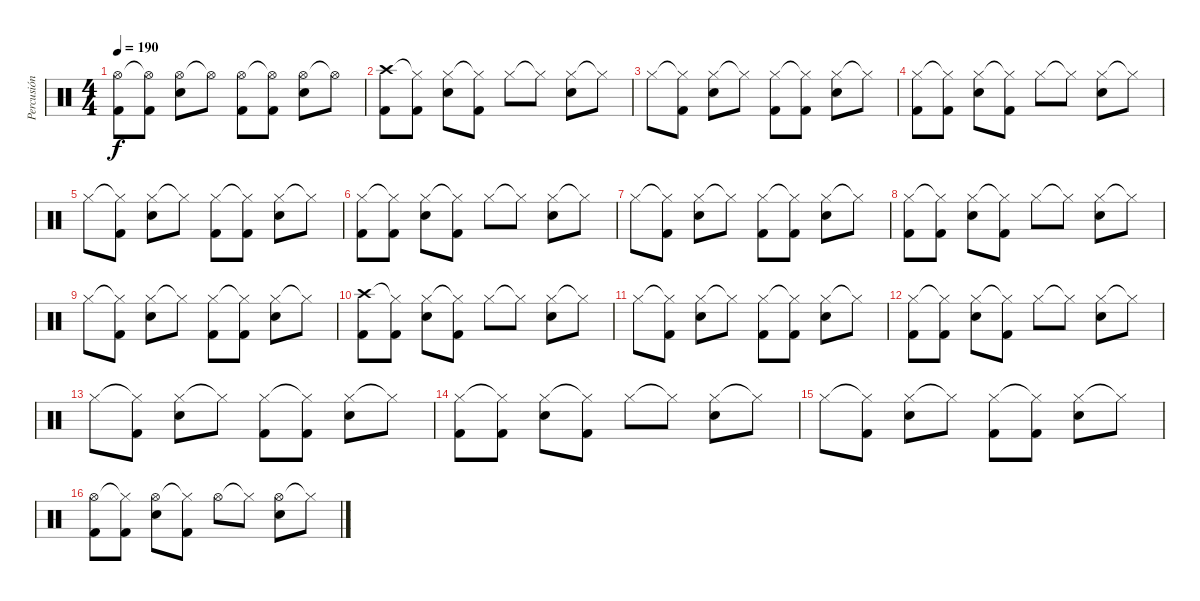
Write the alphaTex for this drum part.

\track ("Percusión" "Percusión") {instrument percussion}
\staff {score}
\articulation defaults
\ts (4 4)
\tempo 190
\clef neutral
\ks c
("Hi-Hat (open)" "Kick (hit) 2").8{dy f} ("Hi-Hat (open)"{t} "Kick (hit) 2").8 ("Hi-Hat (open)" "Snare (hit) 2").8 "Hi-Hat (open)"{t}.8 ("Hi-Hat (open)" "Kick (hit) 2").8 ("Hi-Hat (open)"{t} "Kick (hit) 2").8 ("Hi-Hat (open)" "Snare (hit) 2").8 "Hi-Hat (open)"{t}.8 |
("Crash high (hit)" "Kick (hit) 2").8 ("Hi-Hat (closed)"{t} "Kick (hit) 2").8 ("Hi-Hat (closed)" "Snare (hit) 2").8 ("Hi-Hat (closed)"{t} "Kick (hit) 2").8 "Hi-Hat (closed)".8 "Hi-Hat (closed)"{t}.8 ("Hi-Hat (closed)" "Snare (hit) 2").8 "Hi-Hat (closed)"{t}.8 |
"Hi-Hat (closed)".8 ("Hi-Hat (closed)"{t} "Kick (hit) 2").8 ("Hi-Hat (closed)" "Snare (hit) 2").8 "Hi-Hat (closed)"{t}.8 ("Hi-Hat (closed)" "Kick (hit) 2").8 ("Hi-Hat (closed)"{t} "Kick (hit) 2").8 ("Hi-Hat (closed)" "Snare (hit) 2").8 "Hi-Hat (closed)"{t}.8 |
("Hi-Hat (closed)" "Kick (hit) 2").8 ("Hi-Hat (closed)"{t} "Kick (hit) 2").8 ("Hi-Hat (closed)" "Snare (hit) 2").8 ("Hi-Hat (closed)"{t} "Kick (hit) 2").8 "Hi-Hat (closed)".8 "Hi-Hat (closed)"{t}.8 ("Hi-Hat (closed)" "Snare (hit) 2").8 "Hi-Hat (closed)"{t}.8 |
"Hi-Hat (closed)".8 ("Hi-Hat (closed)"{t} "Kick (hit) 2").8 ("Hi-Hat (closed)" "Snare (hit) 2").8 "Hi-Hat (closed)"{t}.8 ("Hi-Hat (closed)" "Kick (hit) 2").8 ("Hi-Hat (closed)"{t} "Kick (hit) 2").8 ("Hi-Hat (closed)" "Snare (hit) 2").8 "Hi-Hat (closed)"{t}.8 |
("Hi-Hat (closed)" "Kick (hit) 2").8 ("Hi-Hat (closed)"{t} "Kick (hit) 2").8 ("Hi-Hat (closed)" "Snare (hit) 2").8 ("Hi-Hat (closed)"{t} "Kick (hit) 2").8 "Hi-Hat (closed)".8 "Hi-Hat (closed)"{t}.8 ("Hi-Hat (closed)" "Snare (hit) 2").8 "Hi-Hat (closed)"{t}.8 |
"Hi-Hat (closed)".8 ("Hi-Hat (closed)"{t} "Kick (hit) 2").8 ("Hi-Hat (closed)" "Snare (hit) 2").8 "Hi-Hat (closed)"{t}.8 ("Hi-Hat (closed)" "Kick (hit) 2").8 ("Hi-Hat (closed)"{t} "Kick (hit) 2").8 ("Hi-Hat (closed)" "Snare (hit) 2").8 "Hi-Hat (closed)"{t}.8 |
("Hi-Hat (closed)" "Kick (hit) 2").8 ("Hi-Hat (closed)"{t} "Kick (hit) 2").8 ("Hi-Hat (closed)" "Snare (hit) 2").8 ("Hi-Hat (closed)"{t} "Kick (hit) 2").8 "Hi-Hat (closed)".8 "Hi-Hat (closed)"{t}.8 ("Hi-Hat (closed)" "Snare (hit) 2").8 "Hi-Hat (closed)"{t}.8 |
"Hi-Hat (closed)".8 ("Hi-Hat (closed)"{t} "Kick (hit) 2").8 ("Hi-Hat (closed)" "Snare (hit) 2").8 "Hi-Hat (closed)"{t}.8 ("Hi-Hat (closed)" "Kick (hit) 2").8 ("Hi-Hat (closed)"{t} "Kick (hit) 2").8 ("Hi-Hat (closed)" "Snare (hit) 2").8 "Hi-Hat (closed)"{t}.8 |
("Crash high (hit)" "Kick (hit) 2").8 ("Hi-Hat (closed)"{t} "Kick (hit) 2").8 ("Hi-Hat (closed)" "Snare (hit) 2").8 ("Hi-Hat (closed)"{t} "Kick (hit) 2").8 "Hi-Hat (closed)".8 "Hi-Hat (closed)"{t}.8 ("Hi-Hat (closed)" "Snare (hit) 2").8 "Hi-Hat (closed)"{t}.8 |
"Hi-Hat (closed)".8 ("Hi-Hat (closed)"{t} "Kick (hit) 2").8 ("Hi-Hat (closed)" "Snare (hit) 2").8 "Hi-Hat (closed)"{t}.8 ("Hi-Hat (closed)" "Kick (hit) 2").8 ("Hi-Hat (closed)"{t} "Kick (hit) 2").8 ("Hi-Hat (closed)" "Snare (hit) 2").8 "Hi-Hat (closed)"{t}.8 |
("Hi-Hat (closed)" "Kick (hit) 2").8 ("Hi-Hat (closed)"{t} "Kick (hit) 2").8 ("Hi-Hat (closed)" "Snare (hit) 2").8 ("Hi-Hat (closed)"{t} "Kick (hit) 2").8 "Hi-Hat (closed)".8 "Hi-Hat (closed)"{t}.8 ("Hi-Hat (closed)" "Snare (hit) 2").8 "Hi-Hat (closed)"{t}.8 |
"Hi-Hat (closed)".8 ("Hi-Hat (closed)"{t} "Kick (hit) 2").8 ("Hi-Hat (closed)" "Snare (hit) 2").8 "Hi-Hat (closed)"{t}.8 ("Hi-Hat (closed)" "Kick (hit) 2").8 ("Hi-Hat (closed)"{t} "Kick (hit) 2").8 ("Hi-Hat (closed)" "Snare (hit) 2").8 "Hi-Hat (closed)"{t}.8 |
("Hi-Hat (closed)" "Kick (hit) 2").8 ("Hi-Hat (closed)"{t} "Kick (hit) 2").8 ("Hi-Hat (closed)" "Snare (hit) 2").8 ("Hi-Hat (closed)"{t} "Kick (hit) 2").8 "Hi-Hat (closed)".8 "Hi-Hat (closed)"{t}.8 ("Hi-Hat (closed)" "Snare (hit) 2").8 "Hi-Hat (closed)"{t}.8 |
"Hi-Hat (closed)".8 ("Hi-Hat (closed)"{t} "Kick (hit) 2").8 ("Hi-Hat (closed)" "Snare (hit) 2").8 "Hi-Hat (closed)"{t}.8 ("Hi-Hat (closed)" "Kick (hit) 2").8 ("Hi-Hat (closed)"{t} "Kick (hit) 2").8 ("Hi-Hat (closed)" "Snare (hit) 2").8 "Hi-Hat (closed)"{t}.8 |
("Hi-Hat (open)" "Kick (hit) 2").8 ("Hi-Hat (closed)"{t} "Kick (hit) 2").8 ("Hi-Hat (open)" "Snare (hit) 2").8 ("Hi-Hat (closed)"{t} "Kick (hit) 2").8 "Hi-Hat (open)".8 "Hi-Hat (closed)"{t}.8 ("Hi-Hat (open)" "Snare (hit) 2").8 "Hi-Hat (closed)"{t}.8
